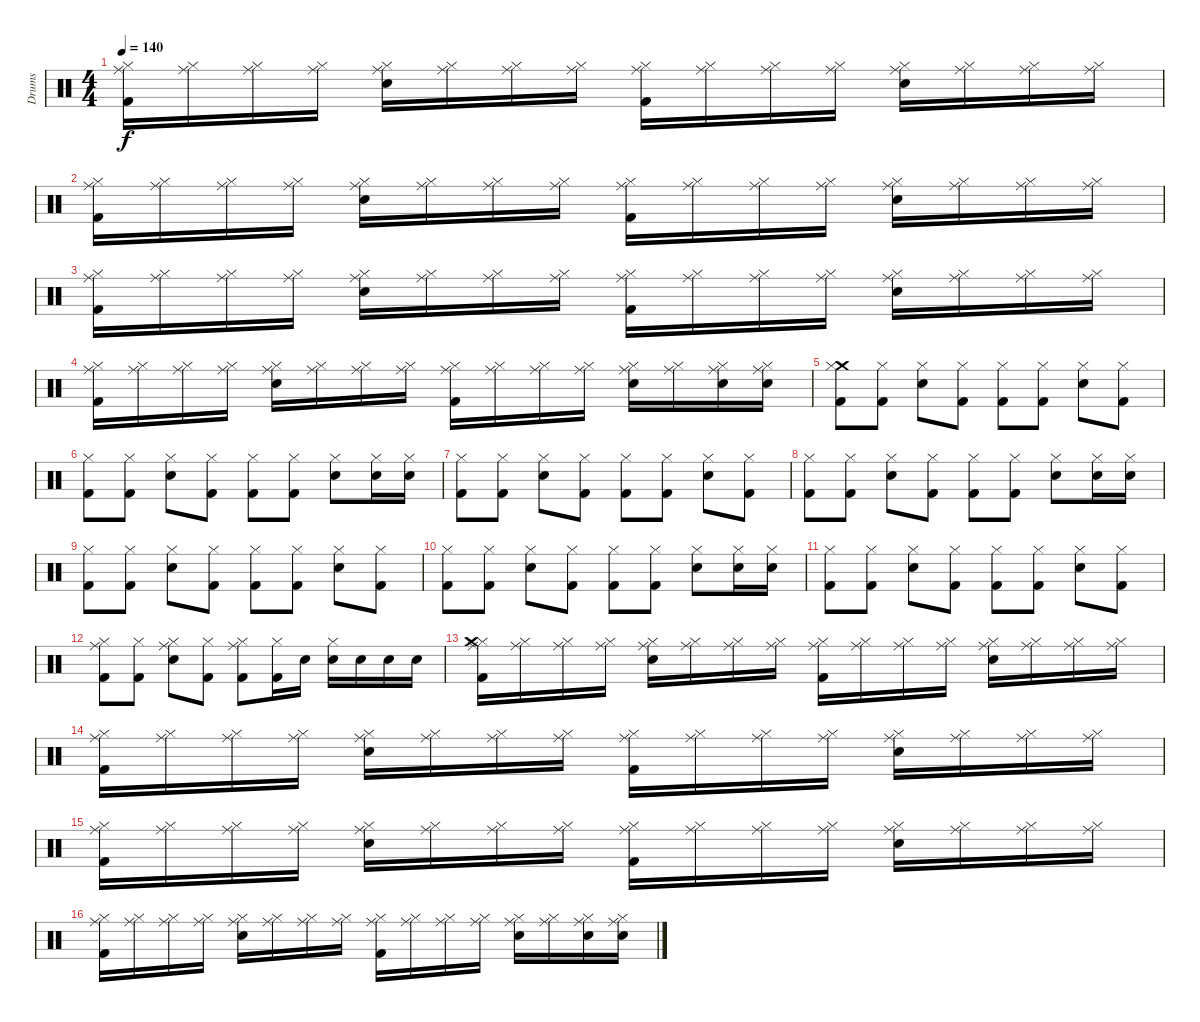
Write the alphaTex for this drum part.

\track ("Drums" "Drums") {instrument percussion}
\staff {score}
\articulation defaults
\ts (4 4)
\tempo 140
\clef neutral
\ks c
("Hi-Hat (closed)" "Ride (middle)" "Kick (hit) 2").16{dy f} ("Hi-Hat (closed)" "Ride (middle)").16 ("Hi-Hat (closed)" "Ride (middle)").16 ("Hi-Hat (closed)" "Ride (middle)").16 ("Hi-Hat (closed)" "Ride (middle)" "Snare (hit) 2").16 ("Hi-Hat (closed)" "Ride (middle)").16 ("Hi-Hat (closed)" "Ride (middle)").16 ("Hi-Hat (closed)" "Ride (middle)").16 ("Hi-Hat (closed)" "Ride (middle)" "Kick (hit) 2").16 ("Hi-Hat (closed)" "Ride (middle)").16 ("Hi-Hat (closed)" "Ride (middle)").16 ("Hi-Hat (closed)" "Ride (middle)").16 ("Hi-Hat (closed)" "Ride (middle)" "Snare (hit) 2").16 ("Hi-Hat (closed)" "Ride (middle)").16 ("Hi-Hat (closed)" "Ride (middle)").16 ("Hi-Hat (closed)" "Ride (middle)").16 |
("Hi-Hat (closed)" "Ride (middle)" "Kick (hit) 2").16 ("Hi-Hat (closed)" "Ride (middle)").16 ("Hi-Hat (closed)" "Ride (middle)").16 ("Hi-Hat (closed)" "Ride (middle)").16 ("Hi-Hat (closed)" "Ride (middle)" "Snare (hit) 2").16 ("Hi-Hat (closed)" "Ride (middle)").16 ("Hi-Hat (closed)" "Ride (middle)").16 ("Hi-Hat (closed)" "Ride (middle)").16 ("Hi-Hat (closed)" "Ride (middle)" "Kick (hit) 2").16 ("Hi-Hat (closed)" "Ride (middle)").16 ("Hi-Hat (closed)" "Ride (middle)").16 ("Hi-Hat (closed)" "Ride (middle)").16 ("Hi-Hat (closed)" "Ride (middle)" "Snare (hit) 2").16 ("Hi-Hat (closed)" "Ride (middle)").16 ("Hi-Hat (closed)" "Ride (middle)").16 ("Hi-Hat (closed)" "Ride (middle)").16 |
("Hi-Hat (closed)" "Ride (middle)" "Kick (hit) 2").16 ("Hi-Hat (closed)" "Ride (middle)").16 ("Hi-Hat (closed)" "Ride (middle)").16 ("Hi-Hat (closed)" "Ride (middle)").16 ("Hi-Hat (closed)" "Ride (middle)" "Snare (hit) 2").16 ("Hi-Hat (closed)" "Ride (middle)").16 ("Hi-Hat (closed)" "Ride (middle)").16 ("Hi-Hat (closed)" "Ride (middle)").16 ("Hi-Hat (closed)" "Ride (middle)" "Kick (hit) 2").16 ("Hi-Hat (closed)" "Ride (middle)").16 ("Hi-Hat (closed)" "Ride (middle)").16 ("Hi-Hat (closed)" "Ride (middle)").16 ("Hi-Hat (closed)" "Ride (middle)" "Snare (hit) 2").16 ("Hi-Hat (closed)" "Ride (middle)").16 ("Hi-Hat (closed)" "Ride (middle)").16 ("Hi-Hat (closed)" "Ride (middle)").16 |
("Hi-Hat (closed)" "Ride (middle)" "Kick (hit) 2").16 ("Hi-Hat (closed)" "Ride (middle)").16 ("Hi-Hat (closed)" "Ride (middle)").16 ("Hi-Hat (closed)" "Ride (middle)").16 ("Hi-Hat (closed)" "Ride (middle)" "Snare (hit) 2").16 ("Hi-Hat (closed)" "Ride (middle)").16 ("Hi-Hat (closed)" "Ride (middle)").16 ("Hi-Hat (closed)" "Ride (middle)").16 ("Hi-Hat (closed)" "Ride (middle)" "Kick (hit) 2").16 ("Hi-Hat (closed)" "Ride (middle)").16 ("Hi-Hat (closed)" "Ride (middle)").16 ("Hi-Hat (closed)" "Ride (middle)").16 ("Hi-Hat (closed)" "Ride (middle)" "Snare (hit) 2").16 ("Hi-Hat (closed)" "Ride (middle)").16 ("Hi-Hat (closed)" "Ride (middle)" "Snare (hit) 2").16 ("Hi-Hat (closed)" "Ride (middle)" "Snare (hit) 2").16 |
("Crash medium (hit)" "Hi-Hat (closed)" "Kick (hit) 2").8 ("Hi-Hat (closed)" "Kick (hit) 2").8 ("Hi-Hat (closed)" "Snare (hit) 2").8 ("Hi-Hat (closed)" "Kick (hit) 2").8 ("Hi-Hat (closed)" "Kick (hit) 2").8 ("Hi-Hat (closed)" "Kick (hit) 2").8 ("Hi-Hat (closed)" "Snare (hit) 2").8 ("Hi-Hat (closed)" "Kick (hit) 2").8 |
("Hi-Hat (closed)" "Kick (hit) 2").8 ("Hi-Hat (closed)" "Kick (hit) 2").8 ("Hi-Hat (closed)" "Snare (hit) 2").8 ("Hi-Hat (closed)" "Kick (hit) 2").8 ("Hi-Hat (closed)" "Kick (hit) 2").8 ("Hi-Hat (closed)" "Kick (hit) 2").8 ("Hi-Hat (closed)" "Snare (hit) 2").8 ("Hi-Hat (closed)" "Snare (hit) 2").16 ("Hi-Hat (closed)" "Snare (hit) 2").16 |
("Hi-Hat (closed)" "Kick (hit) 2").8 ("Hi-Hat (closed)" "Kick (hit) 2").8 ("Hi-Hat (closed)" "Snare (hit) 2").8 ("Hi-Hat (closed)" "Kick (hit) 2").8 ("Hi-Hat (closed)" "Kick (hit) 2").8 ("Hi-Hat (closed)" "Kick (hit) 2").8 ("Hi-Hat (closed)" "Snare (hit) 2").8 ("Hi-Hat (closed)" "Kick (hit) 2").8 |
("Hi-Hat (closed)" "Kick (hit) 2").8 ("Hi-Hat (closed)" "Kick (hit) 2").8 ("Hi-Hat (closed)" "Snare (hit) 2").8 ("Hi-Hat (closed)" "Kick (hit) 2").8 ("Hi-Hat (closed)" "Kick (hit) 2").8 ("Hi-Hat (closed)" "Kick (hit) 2").8 ("Hi-Hat (closed)" "Snare (hit) 2").8 ("Hi-Hat (closed)" "Snare (hit) 2").16 ("Hi-Hat (closed)" "Snare (hit) 2").16 |
("Hi-Hat (closed)" "Kick (hit) 2").8 ("Hi-Hat (closed)" "Kick (hit) 2").8 ("Hi-Hat (closed)" "Snare (hit) 2").8 ("Hi-Hat (closed)" "Kick (hit) 2").8 ("Hi-Hat (closed)" "Kick (hit) 2").8 ("Hi-Hat (closed)" "Kick (hit) 2").8 ("Hi-Hat (closed)" "Snare (hit) 2").8 ("Hi-Hat (closed)" "Kick (hit) 2").8 |
("Hi-Hat (closed)" "Kick (hit) 2").8 ("Hi-Hat (closed)" "Kick (hit) 2").8 ("Hi-Hat (closed)" "Snare (hit) 2").8 ("Hi-Hat (closed)" "Kick (hit) 2").8 ("Hi-Hat (closed)" "Kick (hit) 2").8 ("Hi-Hat (closed)" "Kick (hit) 2").8 ("Hi-Hat (closed)" "Snare (hit) 2").8 ("Hi-Hat (closed)" "Snare (hit) 2").16 ("Hi-Hat (closed)" "Snare (hit) 2").16 |
("Hi-Hat (closed)" "Kick (hit) 2").8 ("Hi-Hat (closed)" "Kick (hit) 2").8 ("Hi-Hat (closed)" "Snare (hit) 2").8 ("Hi-Hat (closed)" "Kick (hit) 2").8 ("Hi-Hat (closed)" "Kick (hit) 2").8 ("Hi-Hat (closed)" "Kick (hit) 2").8 ("Hi-Hat (closed)" "Snare (hit) 2").8 ("Hi-Hat (closed)" "Kick (hit) 2").8 |
("Ride (middle)" "Hi-Hat (closed)" "Kick (hit) 2").8 ("Hi-Hat (closed)" "Kick (hit) 2").8 ("Ride (middle)" "Hi-Hat (closed)" "Snare (hit) 2").8 ("Hi-Hat (closed)" "Kick (hit) 2").8 ("Ride (middle)" "Hi-Hat (closed)" "Kick (hit) 2").8 ("Hi-Hat (closed)" "Kick (hit) 2").16 "Snare (hit) 2".16 ("Hi-Hat (closed)" "Snare (hit) 2").16 "Snare (hit) 2".16 "Snare (hit) 2".16 "Snare (hit) 2".16 |
("Hi-Hat (closed)" "Crash medium (hit)" "Ride (middle)" "Kick (hit) 2").16 ("Hi-Hat (closed)" "Ride (middle)").16 ("Hi-Hat (closed)" "Ride (middle)").16 ("Hi-Hat (closed)" "Ride (middle)").16 ("Hi-Hat (closed)" "Ride (middle)" "Snare (hit) 2").16 ("Hi-Hat (closed)" "Ride (middle)").16 ("Hi-Hat (closed)" "Ride (middle)").16 ("Hi-Hat (closed)" "Ride (middle)").16 ("Hi-Hat (closed)" "Ride (middle)" "Kick (hit) 2").16 ("Hi-Hat (closed)" "Ride (middle)").16 ("Hi-Hat (closed)" "Ride (middle)").16 ("Hi-Hat (closed)" "Ride (middle)").16 ("Hi-Hat (closed)" "Ride (middle)" "Snare (hit) 2").16 ("Hi-Hat (closed)" "Ride (middle)").16 ("Hi-Hat (closed)" "Ride (middle)").16 ("Hi-Hat (closed)" "Ride (middle)").16 |
("Hi-Hat (closed)" "Ride (middle)" "Kick (hit) 2").16 ("Hi-Hat (closed)" "Ride (middle)").16 ("Hi-Hat (closed)" "Ride (middle)").16 ("Hi-Hat (closed)" "Ride (middle)").16 ("Hi-Hat (closed)" "Ride (middle)" "Snare (hit) 2").16 ("Hi-Hat (closed)" "Ride (middle)").16 ("Hi-Hat (closed)" "Ride (middle)").16 ("Hi-Hat (closed)" "Ride (middle)").16 ("Hi-Hat (closed)" "Ride (middle)" "Kick (hit) 2").16 ("Hi-Hat (closed)" "Ride (middle)").16 ("Hi-Hat (closed)" "Ride (middle)").16 ("Hi-Hat (closed)" "Ride (middle)").16 ("Hi-Hat (closed)" "Ride (middle)" "Snare (hit) 2").16 ("Hi-Hat (closed)" "Ride (middle)").16 ("Hi-Hat (closed)" "Ride (middle)").16 ("Hi-Hat (closed)" "Ride (middle)").16 |
("Hi-Hat (closed)" "Ride (middle)" "Kick (hit) 2").16 ("Hi-Hat (closed)" "Ride (middle)").16 ("Hi-Hat (closed)" "Ride (middle)").16 ("Hi-Hat (closed)" "Ride (middle)").16 ("Hi-Hat (closed)" "Ride (middle)" "Snare (hit) 2").16 ("Hi-Hat (closed)" "Ride (middle)").16 ("Hi-Hat (closed)" "Ride (middle)").16 ("Hi-Hat (closed)" "Ride (middle)").16 ("Hi-Hat (closed)" "Ride (middle)" "Kick (hit) 2").16 ("Hi-Hat (closed)" "Ride (middle)").16 ("Hi-Hat (closed)" "Ride (middle)").16 ("Hi-Hat (closed)" "Ride (middle)").16 ("Hi-Hat (closed)" "Ride (middle)" "Snare (hit) 2").16 ("Hi-Hat (closed)" "Ride (middle)").16 ("Hi-Hat (closed)" "Ride (middle)").16 ("Hi-Hat (closed)" "Ride (middle)").16 |
("Hi-Hat (closed)" "Ride (middle)" "Kick (hit) 2").16 ("Hi-Hat (closed)" "Ride (middle)").16 ("Hi-Hat (closed)" "Ride (middle)").16 ("Hi-Hat (closed)" "Ride (middle)").16 ("Hi-Hat (closed)" "Ride (middle)" "Snare (hit) 2").16 ("Hi-Hat (closed)" "Ride (middle)").16 ("Hi-Hat (closed)" "Ride (middle)").16 ("Hi-Hat (closed)" "Ride (middle)").16 ("Hi-Hat (closed)" "Ride (middle)" "Kick (hit) 2").16 ("Hi-Hat (closed)" "Ride (middle)").16 ("Hi-Hat (closed)" "Ride (middle)").16 ("Hi-Hat (closed)" "Ride (middle)").16 ("Hi-Hat (closed)" "Ride (middle)" "Snare (hit) 2").16 ("Hi-Hat (closed)" "Ride (middle)").16 ("Hi-Hat (closed)" "Ride (middle)" "Snare (hit) 2").16 ("Hi-Hat (closed)" "Ride (middle)" "Snare (hit) 2").16
